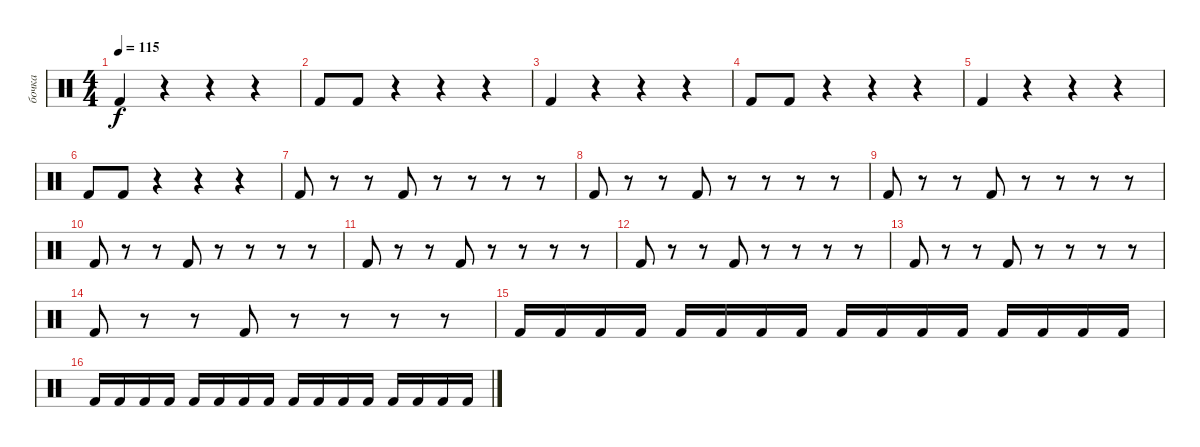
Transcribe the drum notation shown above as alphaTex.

\track ("бочка" "бочка") {mute instrument percussion}
\staff {score}
\articulation defaults
\ts (4 4)
\tempo 115
\clef neutral
\ks c "Kick (hit) 2".4{dy f}
r.4 r.4 r.4 |
"Kick (hit) 2".8 "Kick (hit) 2".8 r.4 r.4 r.4 |
"Kick (hit) 2".4 r.4 r.4 r.4 |
"Kick (hit) 2".8 "Kick (hit) 2".8 r.4 r.4 r.4 |
"Kick (hit) 2".4 r.4 r.4 r.4 |
"Kick (hit) 2".8 "Kick (hit) 2".8 r.4 r.4 r.4 |
"Kick (hit) 2".8 r.8 r.8 "Kick (hit) 2".8 r.8 r.8 r.8 r.8 |
"Kick (hit) 2".8 r.8 r.8 "Kick (hit) 2".8 r.8 r.8 r.8 r.8 |
"Kick (hit) 2".8 r.8 r.8 "Kick (hit) 2".8 r.8 r.8 r.8 r.8 |
"Kick (hit) 2".8 r.8 r.8 "Kick (hit) 2".8 r.8 r.8 r.8 r.8 |
"Kick (hit) 2".8 r.8 r.8 "Kick (hit) 2".8 r.8 r.8 r.8 r.8 |
"Kick (hit) 2".8 r.8 r.8 "Kick (hit) 2".8 r.8 r.8 r.8 r.8 |
"Kick (hit) 2".8 r.8 r.8 "Kick (hit) 2".8 r.8 r.8 r.8 r.8 |
"Kick (hit) 2".8 r.8 r.8 "Kick (hit) 2".8 r.8 r.8 r.8 r.8 |
"Kick (hit) 2".16 "Kick (hit) 2".16 "Kick (hit) 2".16 "Kick (hit) 2".16 "Kick (hit) 2".16 "Kick (hit) 2".16 "Kick (hit) 2".16 "Kick (hit) 2".16 "Kick (hit) 2".16 "Kick (hit) 2".16 "Kick (hit) 2".16 "Kick (hit) 2".16 "Kick (hit) 2".16 "Kick (hit) 2".16 "Kick (hit) 2".16 "Kick (hit) 2".16 |
"Kick (hit) 2".16 "Kick (hit) 2".16 "Kick (hit) 2".16 "Kick (hit) 2".16 "Kick (hit) 2".16 "Kick (hit) 2".16 "Kick (hit) 2".16 "Kick (hit) 2".16 "Kick (hit) 2".16 "Kick (hit) 2".16 "Kick (hit) 2".16 "Kick (hit) 2".16 "Kick (hit) 2".16 "Kick (hit) 2".16 "Kick (hit) 2".16 "Kick (hit) 2".16
